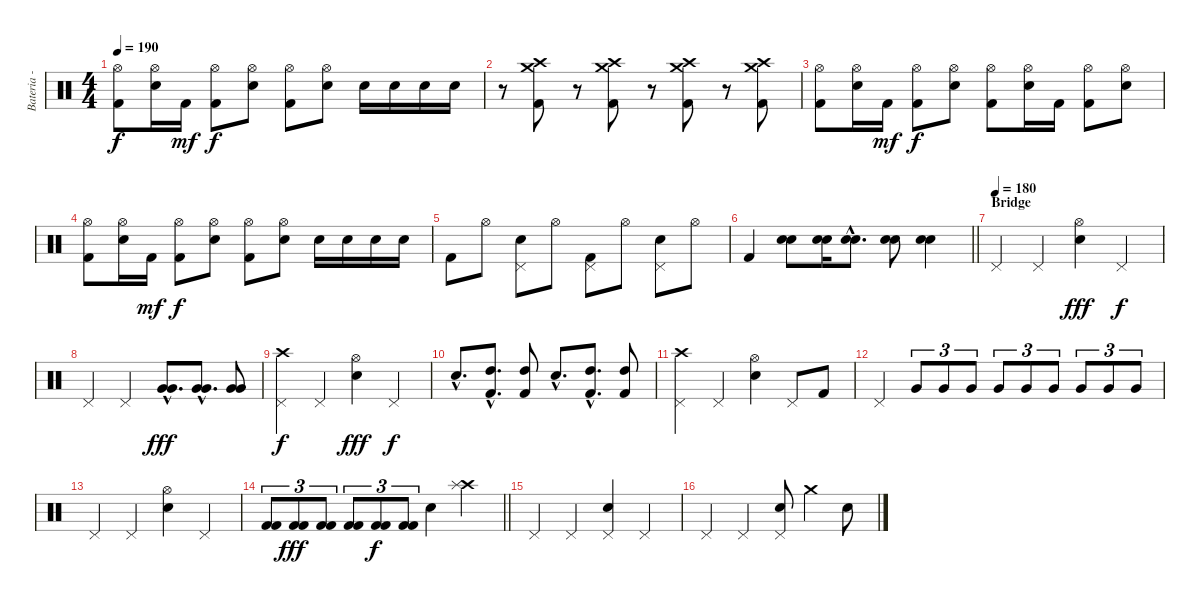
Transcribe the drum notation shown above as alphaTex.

\track ("Bateria - Larzon" "Bateria - ") {instrument percussion}
\staff {score}
\articulation defaults
\ts (4 4)
\tempo 190
\clef neutral
\ks c
("Kick (hit) 2" "Hi-Hat (open)").8{dy f} ("Electric Snare (hit)" "Hi-Hat (open)").16 "Kick (hit) 2".16{dy mf} ("Kick (hit) 2" "Hi-Hat (open)").8{dy f} ("Electric Snare (hit)" "Hi-Hat (open)").8 ("Kick (hit) 2" "Hi-Hat (open)").8 ("Electric Snare (hit)" "Hi-Hat (open)").8 "Electric Snare (hit)".16 "Electric Snare (hit)".16 "Electric Snare (hit)".16 "Electric Snare (hit)".16 |
r.8 ("Kick (hit) 2" "Crash medium (hit)" "Crash high (hit)").8 r.8 ("Kick (hit) 2" "Crash medium (hit)" "Crash high (hit)").8 r.8 ("Kick (hit) 2" "Crash medium (hit)" "Crash high (hit)").8 r.8 ("Kick (hit) 2" "Crash medium (hit)" "Crash high (hit)").8 |
("Kick (hit) 2" "Hi-Hat (open)").8 ("Electric Snare (hit)" "Hi-Hat (open)").16 "Kick (hit) 2".16{dy mf} ("Kick (hit) 2" "Hi-Hat (open)").8{dy f} ("Electric Snare (hit)" "Hi-Hat (open)").8 ("Kick (hit) 2" "Hi-Hat (open)").8 ("Electric Snare (hit)" "Hi-Hat (open)").16 "Kick (hit) 2".16 ("Kick (hit) 2" "Hi-Hat (open)").8 ("Electric Snare (hit)" "Hi-Hat (open)").8 |
("Kick (hit) 2" "Hi-Hat (open)").8 ("Electric Snare (hit)" "Hi-Hat (open)").16 "Kick (hit) 2".16{dy mf} ("Kick (hit) 2" "Hi-Hat (open)").8{dy f} ("Electric Snare (hit)" "Hi-Hat (open)").8 ("Kick (hit) 2" "Hi-Hat (open)").8 ("Electric Snare (hit)" "Hi-Hat (open)").8 "Electric Snare (hit)".16 "Electric Snare (hit)".16 "Electric Snare (hit)".16 "Electric Snare (hit)".16 |
"Kick (hit) 2".8 "Hi-Hat (open)".8 ("Electric Snare (hit)" "Pedal Hi-Hat (hit)").8 "Hi-Hat (open)".8 ("Kick (hit) 2" "Pedal Hi-Hat (hit)").8 "Hi-Hat (open)".8 ("Electric Snare (hit)" "Pedal Hi-Hat (hit)").8 "Hi-Hat (open)".8 |
\barLineRight lightlight "Kick (hit) 2".4
("Electric Snare (hit)" "Electric Snare (hit)").8 ("Electric Snare (hit)" "Electric Snare (hit)").16 ("Electric Snare (hit)"{hac} "Electric Snare (hit)"{hac}).8{d} ("Electric Snare (hit)" "Electric Snare (hit)").8 ("Electric Snare (hit)" "Electric Snare (hit)").4 |
\section ("" "Bridge")
\tempo (180)
"Pedal Hi-Hat (hit)".4 "Pedal Hi-Hat (hit)".4 ("Electric Snare (hit)" "Hi-Hat (open)").4{dy fff} "Pedal Hi-Hat (hit)".4{dy f} |
"Pedal Hi-Hat (hit)".4 "Pedal Hi-Hat (hit)".4 ("Very Low Tom (hit)"{hac} "Very Low Tom (hit)"{hac}).8{d dy fff} ("Very Low Tom (hit)"{hac} "Very Low Tom (hit)"{hac}).8{d} ("Very Low Tom (hit)" "Very Low Tom (hit)").8 |
("Crash high (hit)" "Pedal Hi-Hat (hit)").4{dy f} "Pedal Hi-Hat (hit)".4 ("Electric Snare (hit)" "Hi-Hat (open)").4{dy fff} "Pedal Hi-Hat (hit)".4{dy f} |
"Electric Snare (hit)"{hac}.8{d} ("Kick (hit) 2"{hac} "High Tom (hit)"{hac}).8{d} ("Kick (hit) 2" "High Tom (hit)").8 "Electric Snare (hit)"{hac}.8{d} ("Kick (hit) 2"{hac} "High Tom (hit)"{hac}).8{d} ("Kick (hit) 2" "High Tom (hit)").8 |
("Crash high (hit)" "Pedal Hi-Hat (hit)").4 "Pedal Hi-Hat (hit)".4 ("Electric Snare (hit)" "Hi-Hat (open)").4 "Pedal Hi-Hat (hit)".8 "Kick (hit) 2".8 |
"Pedal Hi-Hat (hit)".4 "Very Low Tom (hit)".8{tu (3 2)} "Very Low Tom (hit)".8{tu (3 2)} "Very Low Tom (hit)".8{tu (3 2)} "Very Low Tom (hit)".8{tu (3 2)} "Very Low Tom (hit)".8{tu (3 2)} "Very Low Tom (hit)".8{tu (3 2)} "Very Low Tom (hit)".8{tu (3 2)} "Very Low Tom (hit)".8{tu (3 2)} "Very Low Tom (hit)".8{tu (3 2)} |
"Pedal Hi-Hat (hit)".4 "Pedal Hi-Hat (hit)".4 ("Electric Snare (hit)" "Hi-Hat (open)").4 "Pedal Hi-Hat (hit)".4 |
\barLineRight lightlight
("Kick (hit) 2" "Kick (hit) 2").8{tu (3 2)} ("Kick (hit) 2" "Kick (hit) 2").8{tu (3 2) dy fff} ("Kick (hit) 2" "Kick (hit) 2").8{tu (3 2)} ("Kick (hit) 2" "Kick (hit) 2").8{tu (3 2)} ("Kick (hit) 2" "Kick (hit) 2").8{tu (3 2) dy f} ("Kick (hit) 2" "Kick (hit) 2").8{tu (3 2)} "Electric Snare (hit)".4 ("Crash high (hit)" "Splash (hit)").4 |
"Pedal Hi-Hat (hit)".4 "Pedal Hi-Hat (hit)".4 ("Electric Snare (hit)" "Pedal Hi-Hat (hit)").4 "Pedal Hi-Hat (hit)".4 |
"Pedal Hi-Hat (hit)".4 "Pedal Hi-Hat (hit)".4 ("Electric Snare (hit)" "Pedal Hi-Hat (hit)").8 "Crash medium (hit)".4 "Electric Snare (hit)".8
